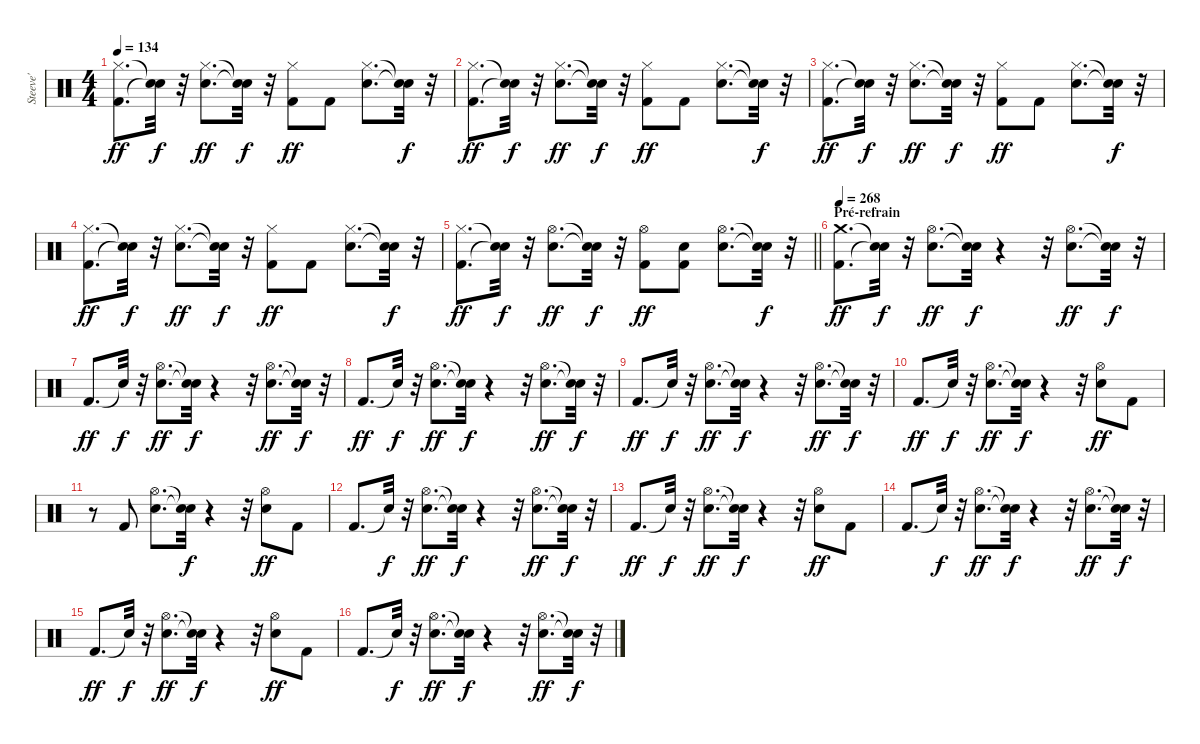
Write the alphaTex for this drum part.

\track ("Steeve'" "Steeve'") {instrument percussion}
\staff {score}
\articulation defaults
\ts (4 4)
\tempo 134
\clef neutral
\ks c
("Kick (hit) 2" "Hi-Hat (closed)").8{d dy ff} ("Snare (hit)"{t} "Snare (hit)"{t}).32{dy f} r.32 ("Electric Snare (hit)" "Hi-Hat (closed)").8{d dy ff} ("Snare (hit)"{t} "Snare (hit)"{t}).32{dy f} r.32 ("Kick (hit) 2" "Hi-Hat (closed)").8{dy ff} "Kick (hit) 2".8 ("Electric Snare (hit)" "Hi-Hat (closed)").8{d} ("Snare (hit)"{t} "Snare (hit)"{t}).32{dy f} r.32 |
("Kick (hit) 2" "Hi-Hat (closed)").8{d dy ff} ("Snare (hit)"{t} "Snare (hit)"{t}).32{dy f} r.32 ("Electric Snare (hit)" "Hi-Hat (closed)").8{d dy ff} ("Snare (hit)"{t} "Snare (hit)"{t}).32{dy f} r.32 ("Kick (hit) 2" "Hi-Hat (closed)").8{dy ff} "Kick (hit) 2".8 ("Electric Snare (hit)" "Hi-Hat (closed)").8{d} ("Snare (hit)"{t} "Snare (hit)"{t}).32{dy f} r.32 |
("Kick (hit) 2" "Hi-Hat (closed)").8{d dy ff} ("Snare (hit)"{t} "Snare (hit)"{t}).32{dy f} r.32 ("Electric Snare (hit)" "Hi-Hat (closed)").8{d dy ff} ("Snare (hit)"{t} "Snare (hit)"{t}).32{dy f} r.32 ("Kick (hit) 2" "Hi-Hat (closed)").8{dy ff} "Kick (hit) 2".8 ("Electric Snare (hit)" "Hi-Hat (closed)").8{d} ("Snare (hit)"{t} "Snare (hit)"{t}).32{dy f} r.32 |
("Kick (hit) 2" "Hi-Hat (closed)").8{d dy ff} ("Snare (hit)"{t} "Snare (hit)"{t}).32{dy f} r.32 ("Electric Snare (hit)" "Hi-Hat (closed)").8{d dy ff} ("Snare (hit)"{t} "Snare (hit)"{t}).32{dy f} r.32 ("Kick (hit) 2" "Hi-Hat (closed)").8{dy ff} "Kick (hit) 2".8 ("Electric Snare (hit)" "Hi-Hat (closed)").8{d} ("Snare (hit)"{t} "Snare (hit)"{t}).32{dy f} r.32 |
\barLineRight lightlight
("Kick (hit) 2" "Hi-Hat (closed)").8{d dy ff} ("Snare (hit)"{t} "Snare (hit)"{t}).32{dy f} r.32 ("Electric Snare (hit)" "Hi-Hat (open)").8{d dy ff} ("Snare (hit)"{t} "Snare (hit)"{t}).32{dy f} r.32 ("Kick (hit) 2" "Hi-Hat (open)").8{dy ff} ("Kick (hit) 2" "Electric Snare (hit)").8 ("Electric Snare (hit)" "Hi-Hat (open)").8{d} ("Snare (hit)"{t} "Snare (hit)"{t}).32{dy f} r.32 |
\section ("" "Pré-refrain")
\tempo 268
("Kick (hit) 2" "Crash medium (hit)").8{d dy ff} ("Snare (hit)"{t} "Snare (hit)"{t}).32{dy f} r.32 ("Electric Snare (hit)" "Hi-Hat (open)").8{d dy ff} ("Snare (hit)"{t} "Snare (hit)"{t}).32{dy f} r.4 r.32 ("Electric Snare (hit)" "Hi-Hat (open)").8{d dy ff} ("Snare (hit)"{t} "Snare (hit)"{t}).32{dy f} r.32 |
"Kick (hit) 2".8{d dy ff} "Snare (hit)"{t}.32{dy f} r.32 ("Electric Snare (hit)" "Hi-Hat (open)").8{d dy ff} ("Snare (hit)"{t} "Snare (hit)"{t}).32{dy f} r.4 r.32 ("Electric Snare (hit)" "Hi-Hat (open)").8{d dy ff} ("Snare (hit)"{t} "Snare (hit)"{t}).32{dy f} r.32 |
"Kick (hit) 2".8{d dy ff} "Snare (hit)"{t}.32{dy f} r.32 ("Electric Snare (hit)" "Hi-Hat (open)").8{d dy ff} ("Snare (hit)"{t} "Snare (hit)"{t}).32{dy f} r.4 r.32 ("Electric Snare (hit)" "Hi-Hat (open)").8{d dy ff} ("Snare (hit)"{t} "Snare (hit)"{t}).32{dy f} r.32 |
"Kick (hit) 2".8{d dy ff} "Snare (hit)"{t}.32{dy f} r.32 ("Electric Snare (hit)" "Hi-Hat (open)").8{d dy ff} ("Snare (hit)"{t} "Snare (hit)"{t}).32{dy f} r.4 r.32 ("Electric Snare (hit)" "Hi-Hat (open)").8{d dy ff} ("Snare (hit)"{t} "Snare (hit)"{t}).32{dy f} r.32 |
"Kick (hit) 2".8{d dy ff} "Snare (hit)"{t}.32{dy f} r.32 ("Electric Snare (hit)" "Hi-Hat (open)").8{d dy ff} ("Snare (hit)"{t} "Snare (hit)"{t}).32{dy f} r.4 r.32 ("Electric Snare (hit)" "Hi-Hat (open)").8{dy ff} "Kick (hit) 2".8 |
r.8 "Kick (hit) 2".8 ("Electric Snare (hit)" "Hi-Hat (open)").8{d} ("Snare (hit)"{t} "Snare (hit)"{t}).32{dy f} r.4 r.32 ("Electric Snare (hit)" "Hi-Hat (open)").8{dy ff} "Kick (hit) 2".8 |
"Kick (hit) 2".8{d} "Snare (hit)"{t}.32{dy f} r.32 ("Electric Snare (hit)" "Hi-Hat (open)").8{d dy ff} ("Snare (hit)"{t} "Snare (hit)"{t}).32{dy f} r.4 r.32 ("Electric Snare (hit)" "Hi-Hat (open)").8{d dy ff} ("Snare (hit)"{t} "Snare (hit)"{t}).32{dy f} r.32 |
"Kick (hit) 2".8{d dy ff} "Snare (hit)"{t}.32{dy f} r.32 ("Electric Snare (hit)" "Hi-Hat (open)").8{d dy ff} ("Snare (hit)"{t} "Snare (hit)"{t}).32{dy f} r.4 r.32 ("Electric Snare (hit)" "Hi-Hat (open)").8{dy ff} "Kick (hit) 2".8 |
"Kick (hit) 2".8{d} "Snare (hit)"{t}.32{dy f} r.32 ("Electric Snare (hit)" "Hi-Hat (open)").8{d dy ff} ("Snare (hit)"{t} "Snare (hit)"{t}).32{dy f} r.4 r.32 ("Electric Snare (hit)" "Hi-Hat (open)").8{d dy ff} ("Snare (hit)"{t} "Snare (hit)"{t}).32{dy f} r.32 |
"Kick (hit) 2".8{d dy ff} "Snare (hit)"{t}.32{dy f} r.32 ("Electric Snare (hit)" "Hi-Hat (open)").8{d dy ff} ("Snare (hit)"{t} "Snare (hit)"{t}).32{dy f} r.4 r.32 ("Electric Snare (hit)" "Hi-Hat (open)").8{dy ff} "Kick (hit) 2".8 |
"Kick (hit) 2".8{d} "Snare (hit)"{t}.32{dy f} r.32 ("Electric Snare (hit)" "Hi-Hat (open)").8{d dy ff} ("Snare (hit)"{t} "Snare (hit)"{t}).32{dy f} r.4 r.32 ("Electric Snare (hit)" "Hi-Hat (open)").8{d dy ff} ("Snare (hit)"{t} "Snare (hit)"{t}).32{dy f} r.32
